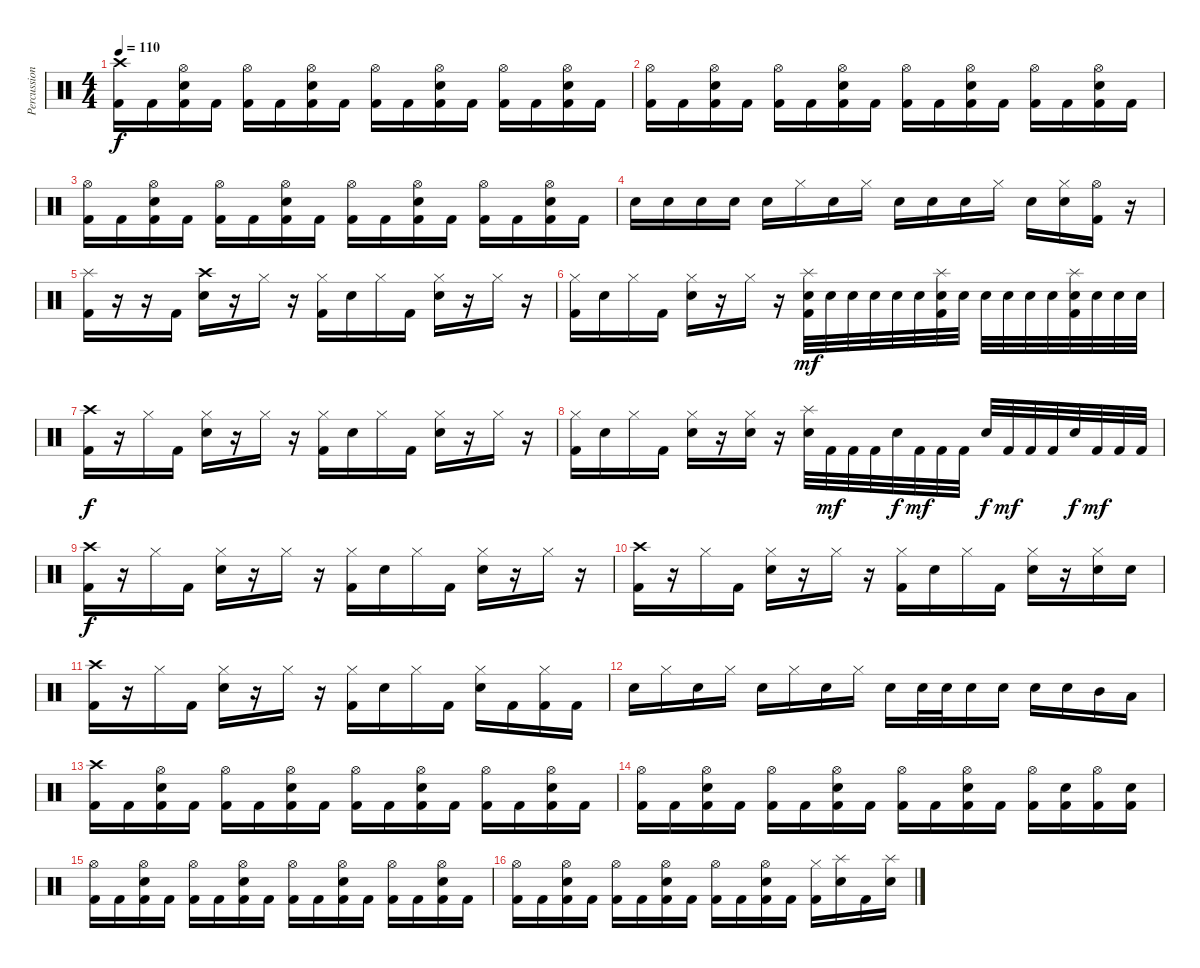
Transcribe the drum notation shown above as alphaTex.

\track ("Percussion" "Percussion") {instrument percussion}
\staff {score}
\articulation defaults
\ts (4 4)
\tempo 110
\clef neutral
\ks c
("Crash high (hit)" "Kick (hit) 2").16{dy f} "Kick (hit) 2".16 ("Hi-Hat (open)" "Electric Snare (hit)" "Kick (hit) 2").16 "Kick (hit) 2".16 ("Hi-Hat (open)" "Kick (hit) 2").16 "Kick (hit) 2".16 ("Hi-Hat (open)" "Electric Snare (hit)" "Kick (hit) 2").16 "Kick (hit) 2".16 ("Hi-Hat (open)" "Kick (hit) 2").16 "Kick (hit) 2".16 ("Hi-Hat (open)" "Electric Snare (hit)" "Kick (hit) 2").16 "Kick (hit) 2".16 ("Hi-Hat (open)" "Kick (hit) 2").16 "Kick (hit) 2".16 ("Hi-Hat (open)" "Electric Snare (hit)" "Kick (hit) 2").16 "Kick (hit) 2".16 |
("Hi-Hat (open)" "Kick (hit) 2").16 "Kick (hit) 2".16 ("Hi-Hat (open)" "Electric Snare (hit)" "Kick (hit) 2").16 "Kick (hit) 2".16 ("Hi-Hat (open)" "Kick (hit) 2").16 "Kick (hit) 2".16 ("Hi-Hat (open)" "Electric Snare (hit)" "Kick (hit) 2").16 "Kick (hit) 2".16 ("Hi-Hat (open)" "Kick (hit) 2").16 "Kick (hit) 2".16 ("Hi-Hat (open)" "Electric Snare (hit)" "Kick (hit) 2").16 "Kick (hit) 2".16 ("Hi-Hat (open)" "Kick (hit) 2").16 "Kick (hit) 2".16 ("Hi-Hat (open)" "Electric Snare (hit)" "Kick (hit) 2").16 "Kick (hit) 2".16 |
("Hi-Hat (open)" "Kick (hit) 2").16 "Kick (hit) 2".16 ("Hi-Hat (open)" "Electric Snare (hit)" "Kick (hit) 2").16 "Kick (hit) 2".16 ("Hi-Hat (open)" "Kick (hit) 2").16 "Kick (hit) 2".16 ("Hi-Hat (open)" "Electric Snare (hit)" "Kick (hit) 2").16 "Kick (hit) 2".16 ("Hi-Hat (open)" "Kick (hit) 2").16 "Kick (hit) 2".16 ("Hi-Hat (open)" "Electric Snare (hit)" "Kick (hit) 2").16 "Kick (hit) 2".16 ("Hi-Hat (open)" "Kick (hit) 2").16 "Kick (hit) 2".16 ("Hi-Hat (open)" "Electric Snare (hit)" "Kick (hit) 2").16 "Kick (hit) 2".16 |
"Electric Snare (hit)".16 "Electric Snare (hit)".16 "Electric Snare (hit)".16 "Electric Snare (hit)".16 "Electric Snare (hit)".16 "Hi-Hat (closed)".16 "Electric Snare (hit)".16 "Hi-Hat (closed)".16 "Electric Snare (hit)".16 "Electric Snare (hit)".16 "Electric Snare (hit)".16 "Hi-Hat (closed)".16 "Electric Snare (hit)".16 ("Hi-Hat (closed)" "Electric Snare (hit)").16 ("Hi-Hat (open)" "Kick (hit) 2").16 r.16 |
("Splash (hit)" "Kick (hit) 2").16 r.16 r.16 "Kick (hit) 2".16 ("Crash high (hit)" "Electric Snare (hit)").16 r.16 "Hi-Hat (closed)".16 r.16 ("Hi-Hat (closed)" "Kick (hit) 2").16 "Electric Snare (hit)".16 "Hi-Hat (closed)".16 "Kick (hit) 2".16 ("Hi-Hat (closed)" "Electric Snare (hit)").16 r.16 "Hi-Hat (closed)".16 r.16 |
("Hi-Hat (closed)" "Kick (hit) 2").16 "Electric Snare (hit)".16 "Hi-Hat (closed)".16 "Kick (hit) 2".16 ("Hi-Hat (closed)" "Electric Snare (hit)").16 r.16 "Hi-Hat (closed)".16 r.16 ("Splash (hit)" "Electric Snare (hit)" "Kick (hit) 2").32{dy mf} "Electric Snare (hit)".32 "Electric Snare (hit)".32 "Electric Snare (hit)".32 "Electric Snare (hit)".32 "Electric Snare (hit)".32 ("Splash (hit)" "Electric Snare (hit)" "Kick (hit) 2").32 "Electric Snare (hit)".32 "Electric Snare (hit)".32 "Electric Snare (hit)".32 "Electric Snare (hit)".32 "Electric Snare (hit)".32 ("Splash (hit)" "Electric Snare (hit)" "Kick (hit) 2").32 "Electric Snare (hit)".32 "Electric Snare (hit)".32 "Electric Snare (hit)".32 |
("Crash high (hit)" "Kick (hit) 2").16{dy f} r.16 "Hi-Hat (closed)".16 "Kick (hit) 2".16 ("Hi-Hat (closed)" "Electric Snare (hit)").16 r.16 "Hi-Hat (closed)".16 r.16 ("Hi-Hat (closed)" "Kick (hit) 2").16 "Electric Snare (hit)".16 "Hi-Hat (closed)".16 "Kick (hit) 2".16 ("Hi-Hat (closed)" "Electric Snare (hit)").16 r.16 "Hi-Hat (closed)".16 r.16 |
("Hi-Hat (closed)" "Kick (hit) 2").16 "Electric Snare (hit)".16 "Hi-Hat (closed)".16 "Kick (hit) 2".16 ("Hi-Hat (closed)" "Electric Snare (hit)").16 r.16 ("Hi-Hat (closed)" "Electric Snare (hit)").16 r.16 ("Splash (hit)" "Electric Snare (hit)").32 "Kick (hit) 2".32{dy mf} "Kick (hit) 2".32 "Kick (hit) 2".32 "Electric Snare (hit)".32{dy f} "Kick (hit) 2".32{dy mf} "Kick (hit) 2".32 "Kick (hit) 2".32 "Electric Snare (hit)".32{dy f} "Kick (hit) 2".32{dy mf} "Kick (hit) 2".32 "Kick (hit) 2".32 "Electric Snare (hit)".32{dy f} "Kick (hit) 2".32{dy mf} "Kick (hit) 2".32 "Kick (hit) 2".32 |
("Crash high (hit)" "Kick (hit) 2").16{dy f} r.16 "Hi-Hat (closed)".16 "Kick (hit) 2".16 ("Hi-Hat (closed)" "Electric Snare (hit)").16 r.16 "Hi-Hat (closed)".16 r.16 ("Hi-Hat (closed)" "Kick (hit) 2").16 "Electric Snare (hit)".16 "Hi-Hat (closed)".16 "Kick (hit) 2".16 ("Hi-Hat (closed)" "Electric Snare (hit)").16 r.16 "Hi-Hat (closed)".16 r.16 |
("Crash high (hit)" "Kick (hit) 2").16 r.16 "Hi-Hat (closed)".16 "Kick (hit) 2".16 ("Hi-Hat (closed)" "Electric Snare (hit)").16 r.16 "Hi-Hat (closed)".16 r.16 ("Hi-Hat (closed)" "Kick (hit) 2").16 "Electric Snare (hit)".16 "Hi-Hat (closed)".16 "Kick (hit) 2".16 ("Hi-Hat (closed)" "Electric Snare (hit)").16 r.16 ("Hi-Hat (closed)" "Electric Snare (hit)").16 "Electric Snare (hit)".16 |
("Crash high (hit)" "Kick (hit) 2").16 r.16 "Hi-Hat (closed)".16 "Kick (hit) 2".16 ("Hi-Hat (closed)" "Electric Snare (hit)").16 r.16 "Hi-Hat (closed)".16 r.16 ("Hi-Hat (closed)" "Kick (hit) 2").16 "Electric Snare (hit)".16 "Hi-Hat (closed)".16 "Kick (hit) 2".16 ("Hi-Hat (closed)" "Electric Snare (hit)").16 "Kick (hit) 2".16 ("Hi-Hat (closed)" "Kick (hit) 2").16 "Kick (hit) 2".16 |
"Electric Snare (hit)".16 "Hi-Hat (closed)".16 "Electric Snare (hit)".16 "Hi-Hat (closed)".16 "Electric Snare (hit)".16 "Hi-Hat (closed)".16 "Electric Snare (hit)".16 "Hi-Hat (closed)".16 "Electric Snare (hit)".16 "Electric Snare (hit)".32 "Electric Snare (hit)".32 "Electric Snare (hit)".16 "Electric Snare (hit)".16 "Electric Snare (hit)".16 "Electric Snare (hit)".16 "Mid Tom (hit)".16 "Low Tom (hit)".16 |
("Crash high (hit)" "Kick (hit) 2").16 "Kick (hit) 2".16 ("Hi-Hat (open)" "Electric Snare (hit)" "Kick (hit) 2").16 "Kick (hit) 2".16 ("Hi-Hat (open)" "Kick (hit) 2").16 "Kick (hit) 2".16 ("Hi-Hat (open)" "Electric Snare (hit)" "Kick (hit) 2").16 "Kick (hit) 2".16 ("Hi-Hat (open)" "Kick (hit) 2").16 "Kick (hit) 2".16 ("Hi-Hat (open)" "Electric Snare (hit)" "Kick (hit) 2").16 "Kick (hit) 2".16 ("Hi-Hat (open)" "Kick (hit) 2").16 "Kick (hit) 2".16 ("Hi-Hat (open)" "Electric Snare (hit)" "Kick (hit) 2").16 "Kick (hit) 2".16 |
("Hi-Hat (open)" "Kick (hit) 2").16 "Kick (hit) 2".16 ("Hi-Hat (open)" "Electric Snare (hit)" "Kick (hit) 2").16 "Kick (hit) 2".16 ("Hi-Hat (open)" "Kick (hit) 2").16 "Kick (hit) 2".16 ("Hi-Hat (open)" "Electric Snare (hit)" "Kick (hit) 2").16 "Kick (hit) 2".16 ("Hi-Hat (open)" "Kick (hit) 2").16 "Kick (hit) 2".16 ("Hi-Hat (open)" "Electric Snare (hit)" "Kick (hit) 2").16 "Kick (hit) 2".16 ("Hi-Hat (open)" "Kick (hit) 2").16 ("Electric Snare (hit)" "Kick (hit) 2").16 ("Hi-Hat (open)" "Kick (hit) 2").16 ("Electric Snare (hit)" "Kick (hit) 2").16 |
("Hi-Hat (open)" "Kick (hit) 2").16 "Kick (hit) 2".16 ("Hi-Hat (open)" "Electric Snare (hit)" "Kick (hit) 2").16 "Kick (hit) 2".16 ("Hi-Hat (open)" "Kick (hit) 2").16 "Kick (hit) 2".16 ("Hi-Hat (open)" "Electric Snare (hit)" "Kick (hit) 2").16 "Kick (hit) 2".16 ("Hi-Hat (open)" "Kick (hit) 2").16 "Kick (hit) 2".16 ("Hi-Hat (open)" "Electric Snare (hit)" "Kick (hit) 2").16 "Kick (hit) 2".16 ("Hi-Hat (open)" "Kick (hit) 2").16 "Kick (hit) 2".16 ("Hi-Hat (open)" "Electric Snare (hit)" "Kick (hit) 2").16 "Kick (hit) 2".16 |
("Hi-Hat (open)" "Kick (hit) 2").16 "Kick (hit) 2".16 ("Hi-Hat (open)" "Electric Snare (hit)" "Kick (hit) 2").16 "Kick (hit) 2".16 ("Hi-Hat (open)" "Kick (hit) 2").16 "Kick (hit) 2".16 ("Hi-Hat (open)" "Electric Snare (hit)" "Kick (hit) 2").16 "Kick (hit) 2".16 ("Hi-Hat (open)" "Kick (hit) 2").16 "Kick (hit) 2".16 ("Hi-Hat (open)" "Electric Snare (hit)" "Kick (hit) 2").16 "Kick (hit) 2".16 ("Hi-Hat (closed)" "Kick (hit) 2").16 ("Splash (hit)" "Electric Snare (hit)").16 "Kick (hit) 2".16 ("Splash (hit)" "Electric Snare (hit)").16
